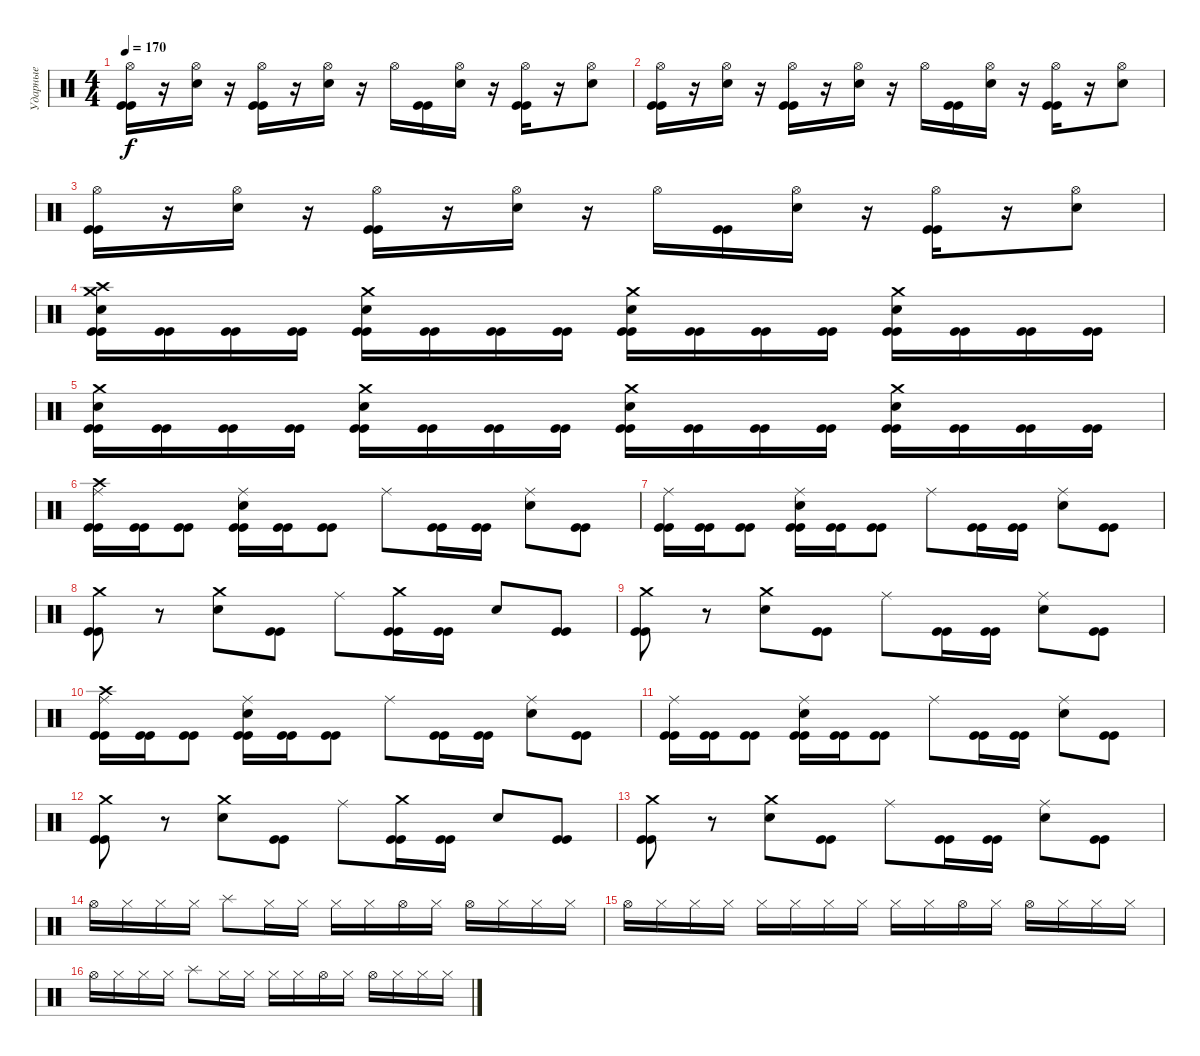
\track ("Ударные" "Ударные") {instrument percussion}
\staff {score}
\articulation defaults
\ts (4 4)
\tempo 170
\clef neutral
\ks c
("Hi-Hat (open)" "Kick (hit)" "Kick (hit)").16{dy f} r.16 ("Hi-Hat (open)" "Electric Snare (hit)").16 r.16 ("Hi-Hat (open)" "Kick (hit)" "Kick (hit)").16 r.16 ("Hi-Hat (open)" "Electric Snare (hit)").16 r.16 "Hi-Hat (open)".16 ("Kick (hit)" "Kick (hit)").16 ("Hi-Hat (open)" "Electric Snare (hit)").16 r.16 ("Hi-Hat (open)" "Kick (hit)" "Kick (hit)").16 r.16 ("Hi-Hat (open)" "Electric Snare (hit)").8 |
("Hi-Hat (open)" "Kick (hit)" "Kick (hit)").16 r.16 ("Hi-Hat (open)" "Electric Snare (hit)").16 r.16 ("Hi-Hat (open)" "Kick (hit)" "Kick (hit)").16 r.16 ("Hi-Hat (open)" "Electric Snare (hit)").16 r.16 "Hi-Hat (open)".16 ("Kick (hit)" "Kick (hit)").16 ("Hi-Hat (open)" "Electric Snare (hit)").16 r.16 ("Hi-Hat (open)" "Kick (hit)" "Kick (hit)").16 r.16 ("Hi-Hat (open)" "Electric Snare (hit)").8 |
("Hi-Hat (open)" "Kick (hit)" "Kick (hit)").16 r.16 ("Hi-Hat (open)" "Electric Snare (hit)").16 r.16 ("Hi-Hat (open)" "Kick (hit)" "Kick (hit)").16 r.16 ("Hi-Hat (open)" "Electric Snare (hit)").16 r.16 "Hi-Hat (open)".16 ("Kick (hit)" "Kick (hit)").16 ("Hi-Hat (open)" "Electric Snare (hit)").16 r.16 ("Hi-Hat (open)" "Kick (hit)" "Kick (hit)").16 r.16 ("Hi-Hat (open)" "Electric Snare (hit)").8 |
("Crash high (hit)" "Crash medium (hit)" "Electric Snare (hit)" "Kick (hit)" "Kick (hit)").16 ("Kick (hit)" "Kick (hit)").16 ("Kick (hit)" "Kick (hit)").16 ("Kick (hit)" "Kick (hit)").16 ("Crash medium (hit)" "Electric Snare (hit)" "Kick (hit)" "Kick (hit)").16 ("Kick (hit)" "Kick (hit)").16 ("Kick (hit)" "Kick (hit)").16 ("Kick (hit)" "Kick (hit)").16 ("Crash medium (hit)" "Electric Snare (hit)" "Kick (hit)" "Kick (hit)").16 ("Kick (hit)" "Kick (hit)").16 ("Kick (hit)" "Kick (hit)").16 ("Kick (hit)" "Kick (hit)").16 ("Crash medium (hit)" "Electric Snare (hit)" "Kick (hit)" "Kick (hit)").16 ("Kick (hit)" "Kick (hit)").16 ("Kick (hit)" "Kick (hit)").16 ("Kick (hit)" "Kick (hit)").16 |
("Crash medium (hit)" "Electric Snare (hit)" "Kick (hit)" "Kick (hit)").16 ("Kick (hit)" "Kick (hit)").16 ("Kick (hit)" "Kick (hit)").16 ("Kick (hit)" "Kick (hit)").16 ("Crash medium (hit)" "Electric Snare (hit)" "Kick (hit)" "Kick (hit)").16 ("Kick (hit)" "Kick (hit)").16 ("Kick (hit)" "Kick (hit)").16 ("Kick (hit)" "Kick (hit)").16 ("Crash medium (hit)" "Electric Snare (hit)" "Kick (hit)" "Kick (hit)").16 ("Kick (hit)" "Kick (hit)").16 ("Kick (hit)" "Kick (hit)").16 ("Kick (hit)" "Kick (hit)").16 ("Crash medium (hit)" "Electric Snare (hit)" "Kick (hit)" "Kick (hit)").16 ("Kick (hit)" "Kick (hit)").16 ("Kick (hit)" "Kick (hit)").16 ("Kick (hit)" "Kick (hit)").16 |
("Crash high (hit)" "Ride (middle)" "Kick (hit)" "Kick (hit)").16 ("Kick (hit)" "Kick (hit)").16 ("Kick (hit)" "Kick (hit)").8 ("Ride (middle)" "Electric Snare (hit)" "Kick (hit)" "Kick (hit)").16 ("Kick (hit)" "Kick (hit)").16 ("Kick (hit)" "Kick (hit)").8 "Ride (middle)".8 ("Kick (hit)" "Kick (hit)").16 ("Kick (hit)" "Kick (hit)").16 ("Ride (middle)" "Electric Snare (hit)").8 ("Kick (hit)" "Kick (hit)").8 |
("Ride (middle)" "Kick (hit)" "Kick (hit)").16 ("Kick (hit)" "Kick (hit)").16 ("Kick (hit)" "Kick (hit)").8 ("Ride (middle)" "Electric Snare (hit)" "Kick (hit)" "Kick (hit)").16 ("Kick (hit)" "Kick (hit)").16 ("Kick (hit)" "Kick (hit)").8 "Ride (middle)".8 ("Kick (hit)" "Kick (hit)").16 ("Kick (hit)" "Kick (hit)").16 ("Ride (middle)" "Electric Snare (hit)").8 ("Kick (hit)" "Kick (hit)").8 |
("Crash medium (hit)" "Kick (hit)" "Kick (hit)").8 r.8 ("Crash medium (hit)" "Electric Snare (hit)").8 ("Kick (hit)" "Kick (hit)").8 "Ride (middle)".8 ("Crash medium (hit)" "Kick (hit)" "Kick (hit)").16 ("Kick (hit)" "Kick (hit)").16 "Electric Snare (hit)".8 ("Kick (hit)" "Kick (hit)").8 |
("Crash medium (hit)" "Kick (hit)" "Kick (hit)").8 r.8 ("Crash medium (hit)" "Electric Snare (hit)").8 ("Kick (hit)" "Kick (hit)").8 "Ride (middle)".8 ("Kick (hit)" "Kick (hit)").16 ("Kick (hit)" "Kick (hit)").16 ("Ride (middle)" "Electric Snare (hit)").8 ("Kick (hit)" "Kick (hit)").8 |
("Crash high (hit)" "Ride (middle)" "Kick (hit)" "Kick (hit)").16 ("Kick (hit)" "Kick (hit)").16 ("Kick (hit)" "Kick (hit)").8 ("Ride (middle)" "Electric Snare (hit)" "Kick (hit)" "Kick (hit)").16 ("Kick (hit)" "Kick (hit)").16 ("Kick (hit)" "Kick (hit)").8 "Ride (middle)".8 ("Kick (hit)" "Kick (hit)").16 ("Kick (hit)" "Kick (hit)").16 ("Ride (middle)" "Electric Snare (hit)").8 ("Kick (hit)" "Kick (hit)").8 |
("Ride (middle)" "Kick (hit)" "Kick (hit)").16 ("Kick (hit)" "Kick (hit)").16 ("Kick (hit)" "Kick (hit)").8 ("Ride (middle)" "Electric Snare (hit)" "Kick (hit)" "Kick (hit)").16 ("Kick (hit)" "Kick (hit)").16 ("Kick (hit)" "Kick (hit)").8 "Ride (middle)".8 ("Kick (hit)" "Kick (hit)").16 ("Kick (hit)" "Kick (hit)").16 ("Ride (middle)" "Electric Snare (hit)").8 ("Kick (hit)" "Kick (hit)").8 |
("Crash medium (hit)" "Kick (hit)" "Kick (hit)").8 r.8 ("Crash medium (hit)" "Electric Snare (hit)").8 ("Kick (hit)" "Kick (hit)").8 "Ride (middle)".8 ("Crash medium (hit)" "Kick (hit)" "Kick (hit)").16 ("Kick (hit)" "Kick (hit)").16 "Electric Snare (hit)".8 ("Kick (hit)" "Kick (hit)").8 |
("Crash medium (hit)" "Kick (hit)" "Kick (hit)").8 r.8 ("Crash medium (hit)" "Electric Snare (hit)").8 ("Kick (hit)" "Kick (hit)").8 "Ride (middle)".8 ("Kick (hit)" "Kick (hit)").16 ("Kick (hit)" "Kick (hit)").16 ("Ride (middle)" "Electric Snare (hit)").8 ("Kick (hit)" "Kick (hit)").8 |
"Hi-Hat (open)".16 "Hi-Hat (closed)".16 "Hi-Hat (closed)".16 "Hi-Hat (closed)".16 "Splash (hit)".8 "Hi-Hat (closed)".16 "Hi-Hat (closed)".16 "Hi-Hat (closed)".16 "Hi-Hat (closed)".16 "Hi-Hat (open)".16 "Hi-Hat (closed)".16 "Hi-Hat (open)".16 "Hi-Hat (closed)".16 "Hi-Hat (closed)".16 "Hi-Hat (closed)".16 |
"Hi-Hat (open)".16 "Hi-Hat (closed)".16 "Hi-Hat (closed)".16 "Hi-Hat (closed)".16 "Hi-Hat (closed)".16 "Hi-Hat (closed)".16 "Hi-Hat (closed)".16 "Hi-Hat (closed)".16 "Hi-Hat (closed)".16 "Hi-Hat (closed)".16 "Hi-Hat (open)".16 "Hi-Hat (closed)".16 "Hi-Hat (open)".16 "Hi-Hat (closed)".16 "Hi-Hat (closed)".16 "Hi-Hat (closed)".16 |
"Hi-Hat (open)".16 "Hi-Hat (closed)".16 "Hi-Hat (closed)".16 "Hi-Hat (closed)".16 "Splash (hit)".8 "Hi-Hat (closed)".16 "Hi-Hat (closed)".16 "Hi-Hat (closed)".16 "Hi-Hat (closed)".16 "Hi-Hat (open)".16 "Hi-Hat (closed)".16 "Hi-Hat (open)".16 "Hi-Hat (closed)".16 "Hi-Hat (closed)".16 "Hi-Hat (closed)".16
